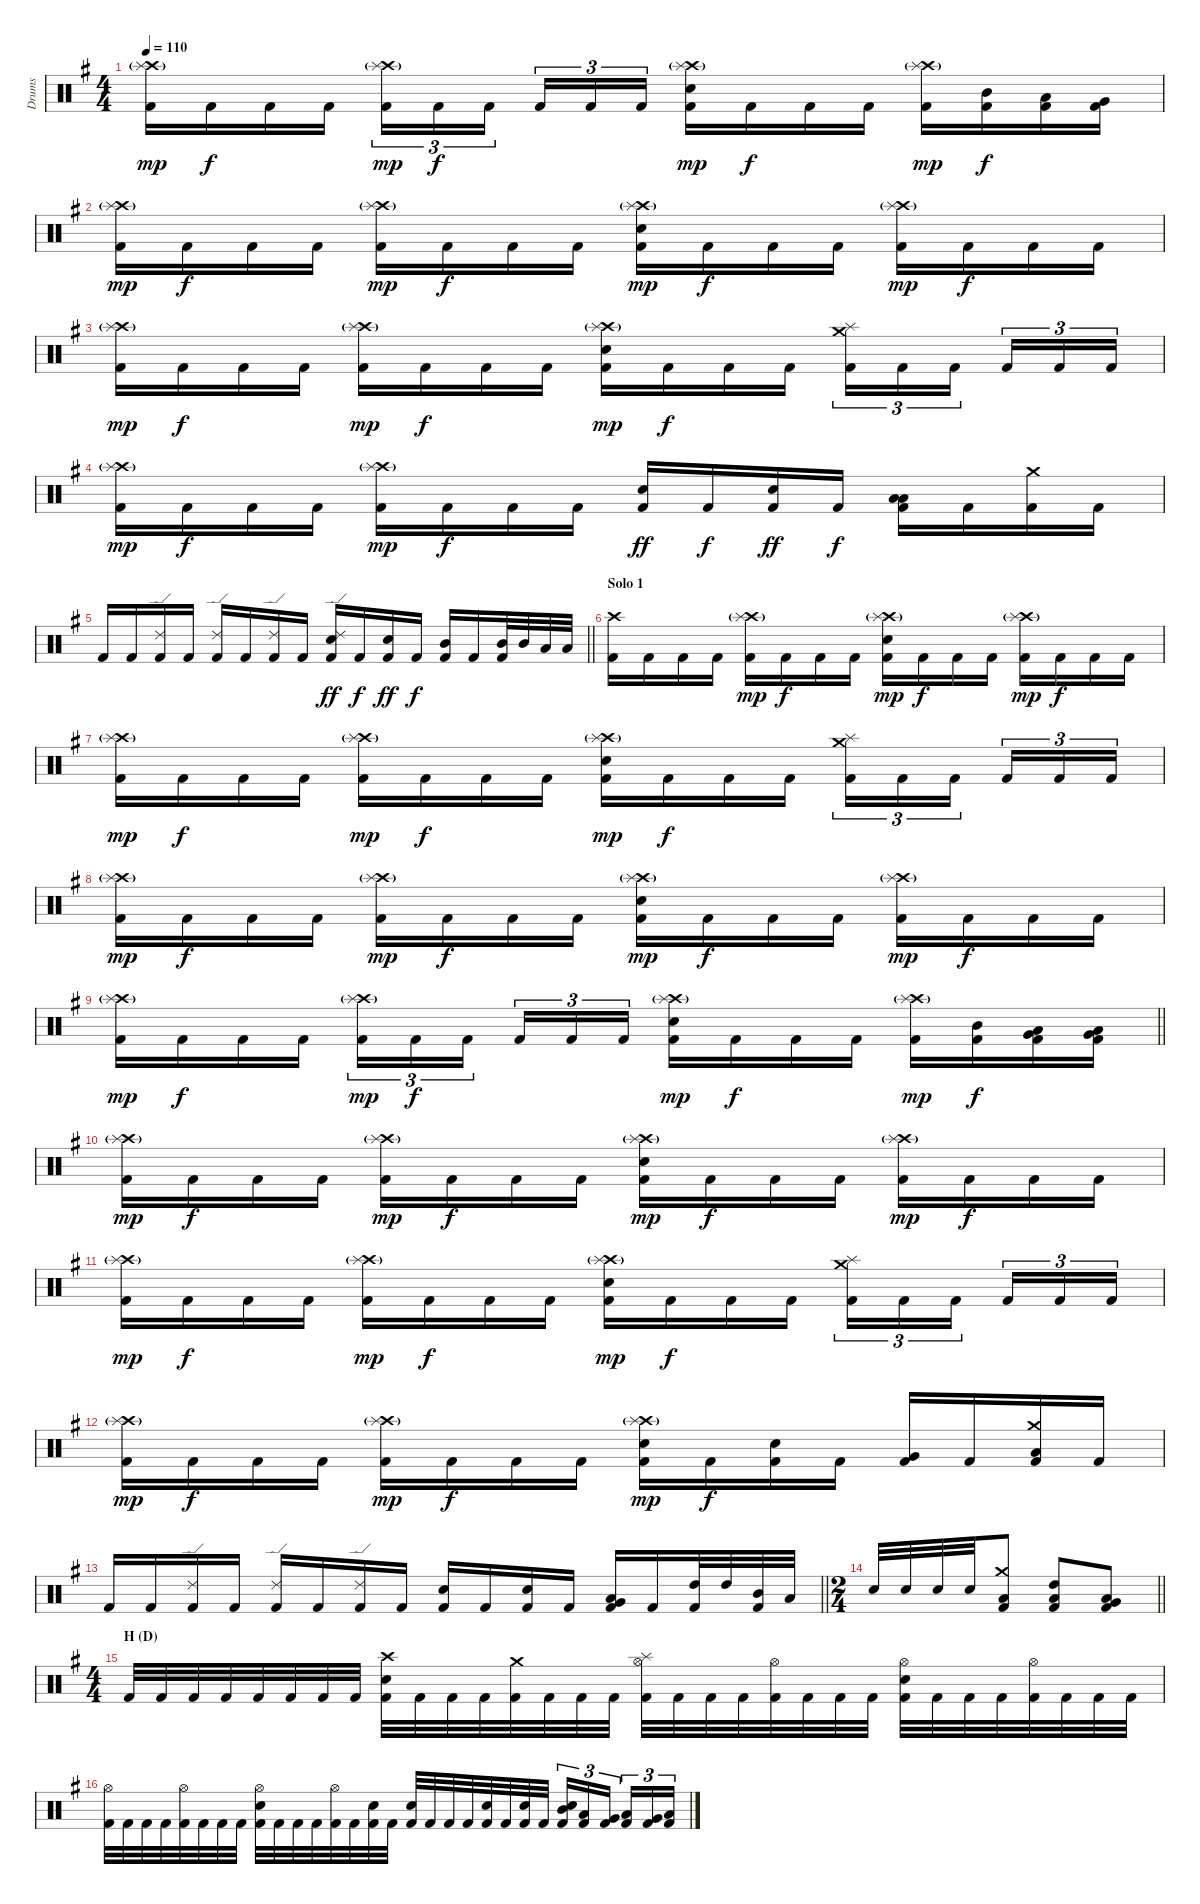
\track ("Drums" "Drums") {instrument percussion}
\staff {score}
\articulation defaults
\ts (4 4)
\tempo 110
\clef neutral
\ks eminor
("Crash high (hit)"{g} "Splash (hit)" "Kick (hit) 2").16{dy mp} "Kick (hit) 2".16{dy f} "Kick (hit) 2".16 "Kick (hit) 2".16 ("Crash high (hit)"{g} "Splash (hit)" "Kick (hit) 2").16{tu (3 2) dy mp} "Kick (hit) 2".16{tu (3 2) dy f} "Kick (hit) 2".16{tu (3 2) beam splitsecondary} "Kick (hit) 2".16{tu (3 2)} "Kick (hit) 2".16{tu (3 2)} "Kick (hit) 2".16{tu (3 2)} ("Crash high (hit)"{g} "Splash (hit)" "Snare (hit) 2" "Kick (hit) 2").16{dy mp} "Kick (hit) 2".16{dy f} "Kick (hit) 2".16 "Kick (hit) 2".16 ("Crash high (hit)"{g} "Splash (hit)" "Kick (hit) 2").16{dy mp} ("Mid Tom (hit)" "Kick (hit) 2").16{dy f} ("Low Tom (hit)" "Kick (hit) 2").16 ("Very Low Tom (hit)" "Kick (hit) 2").16 |
("Crash high (hit)"{g} "Splash (hit)" "Kick (hit) 2").16{dy mp} "Kick (hit) 2".16{dy f} "Kick (hit) 2".16 "Kick (hit) 2".16 ("Crash high (hit)"{g} "Splash (hit)" "Kick (hit) 2").16{dy mp} "Kick (hit) 2".16{dy f} "Kick (hit) 2".16 "Kick (hit) 2".16 ("Crash high (hit)"{g} "Splash (hit)" "Snare (hit) 2" "Kick (hit) 2").16{dy mp} "Kick (hit) 2".16{dy f} "Kick (hit) 2".16 "Kick (hit) 2".16 ("Crash high (hit)"{g} "Splash (hit)" "Kick (hit) 2").16{dy mp} "Kick (hit) 2".16{dy f} "Kick (hit) 2".16 "Kick (hit) 2".16 |
("Crash high (hit)"{g} "Splash (hit)" "Kick (hit) 2").16{dy mp} "Kick (hit) 2".16{dy f} "Kick (hit) 2".16 "Kick (hit) 2".16 ("Crash high (hit)"{g} "Splash (hit)" "Kick (hit) 2").16{dy mp} "Kick (hit) 2".16{dy f} "Kick (hit) 2".16 "Kick (hit) 2".16 ("Crash high (hit)"{g} "Splash (hit)" "Snare (hit) 2" "Kick (hit) 2").16{dy mp} "Kick (hit) 2".16{dy f} "Kick (hit) 2".16 "Kick (hit) 2".16 ("Crash medium (hit)" "Splash (hit)" "Kick (hit) 2").16{tu (3 2)} "Kick (hit) 2".16{tu (3 2)} "Kick (hit) 2".16{tu (3 2) beam splitsecondary} "Kick (hit) 2".16{tu (3 2)} "Kick (hit) 2".16{tu (3 2)} "Kick (hit) 2".16{tu (3 2)} |
("Crash high (hit)"{g} "Splash (hit)" "Kick (hit) 2").16{dy mp} "Kick (hit) 2".16{dy f} "Kick (hit) 2".16 "Kick (hit) 2".16 ("Crash high (hit)"{g} "Splash (hit)" "Kick (hit) 2").16{dy mp} "Kick (hit) 2".16{dy f} "Kick (hit) 2".16 "Kick (hit) 2".16 ("Electric Snare (hit)" "Kick (hit) 2").16{dy ff} "Kick (hit) 2".16{dy f} ("Electric Snare (hit)" "Kick (hit) 2").16{dy ff} "Kick (hit) 2".16{dy f} ("Low Tom (hit)" "Low Tom (hit)" "Kick (hit) 2").16 "Kick (hit) 2".16 ("Crash medium (hit)" "Kick (hit) 2").16 "Kick (hit) 2".16 |
\barLineRight lightlight "Kick (hit) 2".16 "Kick (hit) 2".16
("Ride (edge) 2" "Kick (hit) 2").16 "Kick (hit) 2".16 ("Ride (edge) 2" "Kick (hit) 2").16 "Kick (hit) 2".16 ("Ride (edge) 2" "Kick (hit) 2").16 "Kick (hit) 2".16 ("Ride (edge) 2" "Electric Snare (hit)" "Kick (hit) 2").16{dy ff} "Kick (hit) 2".16{dy f} ("Electric Snare (hit)" "Kick (hit) 2").16{dy ff} "Kick (hit) 2".16{dy f} ("Mid Tom (hit)" "Kick (hit) 2").16 "Kick (hit) 2".16 ("Mid Tom (hit)" "Kick (hit) 2").32 "Mid Tom (hit)".32 "Low Tom (hit)".32 "Low Tom (hit)".32 |
\section ("" "Solo 1")
("Crash high (hit)" "Kick (hit) 2").16 "Kick (hit) 2".16 "Kick (hit) 2".16 "Kick (hit) 2".16 ("Crash high (hit)"{g} "Splash (hit)" "Kick (hit) 2").16{dy mp} "Kick (hit) 2".16{dy f} "Kick (hit) 2".16 "Kick (hit) 2".16 ("Crash high (hit)"{g} "Splash (hit)" "Snare (hit) 2" "Kick (hit) 2").16{dy mp} "Kick (hit) 2".16{dy f} "Kick (hit) 2".16 "Kick (hit) 2".16 ("Crash high (hit)"{g} "Splash (hit)" "Kick (hit) 2").16{dy mp} "Kick (hit) 2".16{dy f} "Kick (hit) 2".16 "Kick (hit) 2".16 |
("Crash high (hit)"{g} "Splash (hit)" "Kick (hit) 2").16{dy mp} "Kick (hit) 2".16{dy f} "Kick (hit) 2".16 "Kick (hit) 2".16 ("Crash high (hit)"{g} "Splash (hit)" "Kick (hit) 2").16{dy mp} "Kick (hit) 2".16{dy f} "Kick (hit) 2".16 "Kick (hit) 2".16 ("Crash high (hit)"{g} "Splash (hit)" "Snare (hit) 2" "Kick (hit) 2").16{dy mp} "Kick (hit) 2".16{dy f} "Kick (hit) 2".16 "Kick (hit) 2".16 ("Crash medium (hit)" "Splash (hit)" "Kick (hit) 2").16{tu (3 2)} "Kick (hit) 2".16{tu (3 2)} "Kick (hit) 2".16{tu (3 2) beam splitsecondary} "Kick (hit) 2".16{tu (3 2)} "Kick (hit) 2".16{tu (3 2)} "Kick (hit) 2".16{tu (3 2)} |
("Crash high (hit)"{g} "Splash (hit)" "Kick (hit) 2").16{dy mp} "Kick (hit) 2".16{dy f} "Kick (hit) 2".16 "Kick (hit) 2".16 ("Crash high (hit)"{g} "Splash (hit)" "Kick (hit) 2").16{dy mp} "Kick (hit) 2".16{dy f} "Kick (hit) 2".16 "Kick (hit) 2".16 ("Crash high (hit)"{g} "Splash (hit)" "Snare (hit) 2" "Kick (hit) 2").16{dy mp} "Kick (hit) 2".16{dy f} "Kick (hit) 2".16 "Kick (hit) 2".16 ("Crash high (hit)"{g} "Splash (hit)" "Kick (hit) 2").16{dy mp} "Kick (hit) 2".16{dy f} "Kick (hit) 2".16 "Kick (hit) 2".16 |
\barLineRight lightlight
("Crash high (hit)"{g} "Splash (hit)" "Kick (hit) 2").16{dy mp} "Kick (hit) 2".16{dy f} "Kick (hit) 2".16 "Kick (hit) 2".16 ("Crash high (hit)"{g} "Splash (hit)" "Kick (hit) 2").16{tu (3 2) dy mp} "Kick (hit) 2".16{tu (3 2) dy f} "Kick (hit) 2".16{tu (3 2) beam splitsecondary} "Kick (hit) 2".16{tu (3 2)} "Kick (hit) 2".16{tu (3 2)} "Kick (hit) 2".16{tu (3 2)} ("Crash high (hit)"{g} "Splash (hit)" "Snare (hit) 2" "Kick (hit) 2").16{dy mp} "Kick (hit) 2".16{dy f} "Kick (hit) 2".16 "Kick (hit) 2".16 ("Crash high (hit)"{g} "Splash (hit)" "Kick (hit) 2").16{dy mp} ("Mid Tom (hit)" "Kick (hit) 2").16{dy f} ("Very Low Tom (hit)" "Low Tom (hit)" "Kick (hit) 2").16 ("Low Floor Tom (hit)" "Very Low Tom (hit)" "Kick (hit) 2").16 |
("Crash high (hit)"{g} "Splash (hit)" "Kick (hit) 2").16{dy mp} "Kick (hit) 2".16{dy f} "Kick (hit) 2".16 "Kick (hit) 2".16 ("Crash high (hit)"{g} "Splash (hit)" "Kick (hit) 2").16{dy mp} "Kick (hit) 2".16{dy f} "Kick (hit) 2".16 "Kick (hit) 2".16 ("Crash high (hit)"{g} "Splash (hit)" "Snare (hit) 2" "Kick (hit) 2").16{dy mp} "Kick (hit) 2".16{dy f} "Kick (hit) 2".16 "Kick (hit) 2".16 ("Crash high (hit)"{g} "Splash (hit)" "Kick (hit) 2").16{dy mp} "Kick (hit) 2".16{dy f} "Kick (hit) 2".16 "Kick (hit) 2".16 |
("Crash high (hit)"{g} "Splash (hit)" "Kick (hit) 2").16{dy mp} "Kick (hit) 2".16{dy f} "Kick (hit) 2".16 "Kick (hit) 2".16 ("Crash high (hit)"{g} "Splash (hit)" "Kick (hit) 2").16{dy mp} "Kick (hit) 2".16{dy f} "Kick (hit) 2".16 "Kick (hit) 2".16 ("Crash high (hit)"{g} "Splash (hit)" "Snare (hit) 2" "Kick (hit) 2").16{dy mp} "Kick (hit) 2".16{dy f} "Kick (hit) 2".16 "Kick (hit) 2".16 ("Crash medium (hit)" "Splash (hit)" "Kick (hit) 2").16{tu (3 2)} "Kick (hit) 2".16{tu (3 2)} "Kick (hit) 2".16{tu (3 2) beam splitsecondary} "Kick (hit) 2".16{tu (3 2)} "Kick (hit) 2".16{tu (3 2)} "Kick (hit) 2".16{tu (3 2)} |
("Crash high (hit)"{g} "Splash (hit)" "Kick (hit) 2").16{dy mp} "Kick (hit) 2".16{dy f} "Kick (hit) 2".16 "Kick (hit) 2".16 ("Crash high (hit)"{g} "Splash (hit)" "Kick (hit) 2").16{dy mp} "Kick (hit) 2".16{dy f} "Kick (hit) 2".16 "Kick (hit) 2".16 ("Crash high (hit)"{g} "Splash (hit)" "Snare (hit) 2" "Kick (hit) 2").16{dy mp} "Kick (hit) 2".16{dy f} ("Snare (hit) 2" "Kick (hit) 2").16 "Kick (hit) 2".16 ("Very Low Tom (hit)" "Kick (hit) 2").16 "Kick (hit) 2".16 ("Crash medium (hit)" "Low Floor Tom (hit)" "Kick (hit) 2").16 "Kick (hit) 2".16 |
\barLineRight lightlight "Kick (hit) 2".16 "Kick (hit) 2".16
("Ride (edge) 2" "Kick (hit) 2").16 "Kick (hit) 2".16 ("Ride (edge) 2" "Kick (hit) 2").16 "Kick (hit) 2".16 ("Ride (edge) 2" "Kick (hit) 2").16 "Kick (hit) 2".16 ("Snare (hit) 2" "Kick (hit) 2").16 "Kick (hit) 2".16 ("Snare (hit) 2" "Kick (hit) 2").16 "Kick (hit) 2".16 ("Low Floor Tom (hit)" "Very Low Tom (hit)" "Kick (hit) 2").16 "Kick (hit) 2".16 ("High Tom (hit)" "Kick (hit) 2").32 "High Tom (hit)".32 ("Mid Tom (hit)" "Kick (hit) 2").32 "Low Tom (hit)".32 |
\ts (2 4)
\barLineRight lightlight "Electric Snare (hit)".32 "Electric Snare (hit)".32 "Electric Snare (hit)".32 "Electric Snare (hit)".32
("Crash medium (hit)" "Low Floor Tom (hit)" "Kick (hit) 2").8 ("High Tom (hit)" "Low Tom (hit)" "Kick (hit) 2").8 ("Low Tom (hit)" "Very Low Tom (hit)" "Kick (hit) 2").8 |
\ts (4 4)
\section ("" "H (D)")
"Kick (hit) 2".32 "Kick (hit) 2".32 "Kick (hit) 2".32 "Kick (hit) 2".32 "Kick (hit) 2".32 "Kick (hit) 2".32 "Kick (hit) 2".32 "Kick (hit) 2".32 ("Crash high (hit)" "Snare (hit) 2" "Kick (hit) 2").32 "Kick (hit) 2".32 "Kick (hit) 2".32 "Kick (hit) 2".32 ("Crash medium (hit)" "Kick (hit) 2").32 "Kick (hit) 2".32 "Kick (hit) 2".32 "Kick (hit) 2".32 ("Splash (hit)" "Hi-Hat (open)" "Kick (hit) 2").32 "Kick (hit) 2".32 "Kick (hit) 2".32 "Kick (hit) 2".32 ("Hi-Hat (open)" "Kick (hit) 2").32 "Kick (hit) 2".32 "Kick (hit) 2".32 "Kick (hit) 2".32 ("Hi-Hat (open)" "Snare (hit) 2" "Kick (hit) 2").32 "Kick (hit) 2".32 "Kick (hit) 2".32 "Kick (hit) 2".32 ("Hi-Hat (open)" "Kick (hit) 2").32 "Kick (hit) 2".32 "Kick (hit) 2".32 "Kick (hit) 2".32 |
("Hi-Hat (open)" "Kick (hit) 2").32 "Kick (hit) 2".32 "Kick (hit) 2".32 "Kick (hit) 2".32 ("Hi-Hat (open)" "Kick (hit) 2").32 "Kick (hit) 2".32 "Kick (hit) 2".32 "Kick (hit) 2".32 ("Hi-Hat (open)" "Snare (hit) 2" "Kick (hit) 2").32 "Kick (hit) 2".32 "Kick (hit) 2".32 "Kick (hit) 2".32 ("Hi-Hat (open)" "Kick (hit) 2").32 "Kick (hit) 2".32 ("Snare (hit) 2" "Kick (hit) 2").32 "Kick (hit) 2".32 ("Snare (hit) 2" "Kick (hit) 2").32 "Kick (hit) 2".32 "Kick (hit) 2".32 "Kick (hit) 2".32 ("Snare (hit) 2" "Kick (hit) 2").32 "Kick (hit) 2".32 ("Snare (hit) 2" "Kick (hit) 2").32 "Kick (hit) 2".32 ("Mid Tom (hit)" "Snare (hit) 2" "Kick (hit) 2").16{tu (3 2)} ("Low Tom (hit)" "Kick (hit) 2").16{tu (3 2)} ("Very Low Tom (hit)" "Kick (hit) 2").16{tu (3 2) beam splitsecondary} ("Low Tom (hit)" "Kick (hit) 2").16{tu (3 2)} ("Very Low Tom (hit)" "Kick (hit) 2").16{tu (3 2)} ("Low Floor Tom (hit)" "Kick (hit) 2").16{tu (3 2)}
